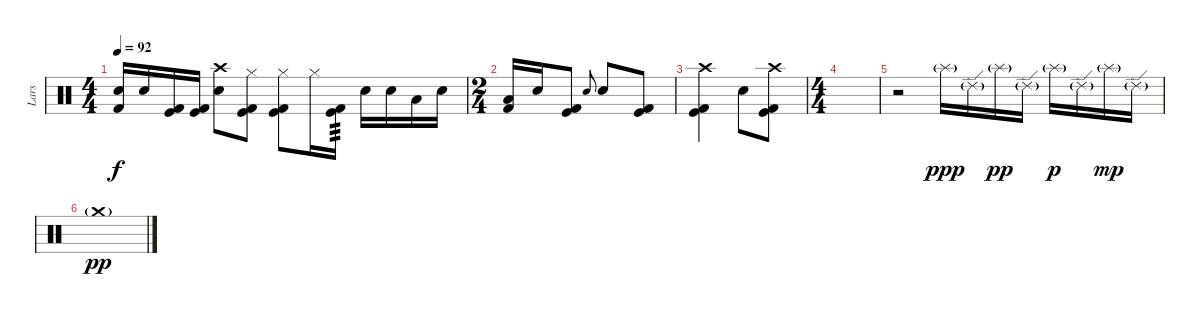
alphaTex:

\track ("Lars" "Lars") {instrument percussion}
\staff {score}
\articulation defaults
\ts (4 4)
\tempo 92
\clef neutral
\ks c
("Electric Snare (hit)" "Kick (hit) 2").16{dy f} "Electric Snare (hit)".16 ("Kick (hit)" "Kick (hit) 2").16 ("Kick (hit)" "Kick (hit) 2").16 ("Crash high (hit)" "Electric Snare (hit)").8 ("Hi-Hat (closed)" "Kick (hit)" "Kick (hit) 2").8 ("Hi-Hat (closed)" "Kick (hit)" "Kick (hit) 2").8 "Hi-Hat (closed)".16 ("Kick (hit)" "Kick (hit) 2").16{tp 3} "Electric Snare (hit)".16 "Electric Snare (hit)".16 "Low Floor Tom (hit)".16 "Electric Snare (hit)".16 |
\ts (2 4)
("Kick (hit) 2" "Low Floor Tom (hit)").16 "Electric Snare (hit)".16 ("Kick (hit)" "Kick (hit) 2").8 "Electric Snare (hit)".8{gr onbeat} "Electric Snare (hit)".8 ("Kick (hit)" "Kick (hit) 2").8 |
("Crash high (hit)" "Kick (hit)" "Kick (hit) 2").4 "Electric Snare (hit)".8 ("Crash high (hit)" "Kick (hit)" "Kick (hit) 2").8 |
\ts (4 4)
|
r.2 "Splash (hit)"{g}.16{dy ppp} "Ride (edge) 2"{g}.16 "Splash (hit)"{g}.16{dy pp} "Ride (edge) 2"{g}.16 "Splash (hit)"{g}.16{dy p} "Ride (edge) 2"{g}.16 "Splash (hit)"{g}.16{dy mp} "Ride (edge) 2"{g}.16 |
"Crash medium (hit)"{g}.1{dy pp}
